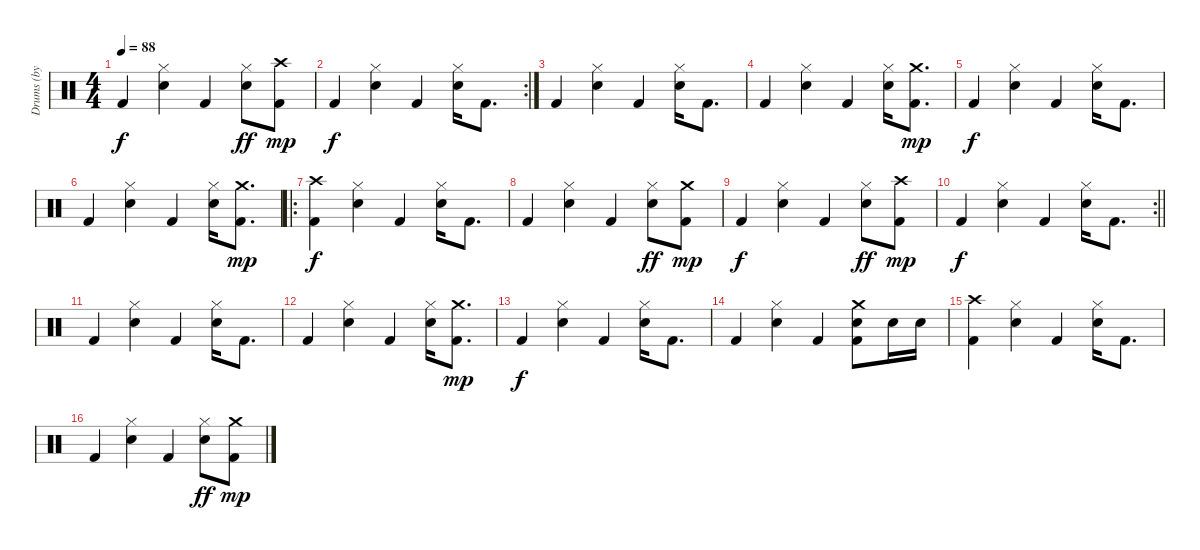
\track ("Drums (by Rim)" "Drums (by ") {instrument percussion}
\staff {score}
\articulation defaults
\ts (4 4)
\tempo 88
\clef neutral
\ks c "Kick (hit) 2".4{dy f}
("Hi-Hat (closed)" "Snare (hit) 2").4 "Kick (hit) 2".4 ("Hi-Hat (closed)" "Snare (hit) 2").8{dy ff} ("Kick (hit) 2" "Crash high (hit)").8{dy mp} |
\rc 2 "Kick (hit) 2".4{dy f}
("Hi-Hat (closed)" "Snare (hit) 2").4 "Kick (hit) 2".4 ("Hi-Hat (closed)" "Snare (hit) 2").16 "Kick (hit) 2".8{d} |
"Kick (hit) 2".4 ("Hi-Hat (closed)" "Snare (hit) 2").4 "Kick (hit) 2".4 ("Hi-Hat (closed)" "Snare (hit) 2").16 "Kick (hit) 2".8{d} |
"Kick (hit) 2".4 ("Hi-Hat (closed)" "Snare (hit) 2").4 "Kick (hit) 2".4 ("Hi-Hat (closed)" "Snare (hit) 2").16 ("Kick (hit) 2" "Crash medium (hit)").8{d dy mp} |
"Kick (hit) 2".4{dy f} ("Hi-Hat (closed)" "Snare (hit) 2").4 "Kick (hit) 2".4 ("Hi-Hat (closed)" "Snare (hit) 2").16 "Kick (hit) 2".8{d} |
"Kick (hit) 2".4 ("Hi-Hat (closed)" "Snare (hit) 2").4 "Kick (hit) 2".4 ("Hi-Hat (closed)" "Snare (hit) 2").16 ("Kick (hit) 2" "Crash medium (hit)").8{d dy mp} |
\ro
("Kick (hit) 2" "Crash high (hit)").4{dy f} ("Hi-Hat (closed)" "Snare (hit) 2").4 "Kick (hit) 2".4 ("Hi-Hat (closed)" "Snare (hit) 2").16 "Kick (hit) 2".8{d} |
"Kick (hit) 2".4 ("Hi-Hat (closed)" "Snare (hit) 2").4 "Kick (hit) 2".4 ("Hi-Hat (closed)" "Snare (hit) 2").8{dy ff} ("Kick (hit) 2" "Crash medium (hit)").8{dy mp} |
"Kick (hit) 2".4{dy f} ("Hi-Hat (closed)" "Snare (hit) 2").4 "Kick (hit) 2".4 ("Hi-Hat (closed)" "Snare (hit) 2").8{dy ff} ("Kick (hit) 2" "Crash high (hit)").8{dy mp} |
\rc 2
\barLineRight lightlight "Kick (hit) 2".4{dy f}
("Hi-Hat (closed)" "Snare (hit) 2").4 "Kick (hit) 2".4 ("Hi-Hat (closed)" "Snare (hit) 2").16 "Kick (hit) 2".8{d} |
"Kick (hit) 2".4 ("Hi-Hat (closed)" "Snare (hit) 2").4 "Kick (hit) 2".4 ("Hi-Hat (closed)" "Snare (hit) 2").16 "Kick (hit) 2".8{d} |
"Kick (hit) 2".4 ("Hi-Hat (closed)" "Snare (hit) 2").4 "Kick (hit) 2".4 ("Hi-Hat (closed)" "Snare (hit) 2").16 ("Kick (hit) 2" "Crash medium (hit)").8{d dy mp} |
"Kick (hit) 2".4{dy f} ("Hi-Hat (closed)" "Snare (hit) 2").4 "Kick (hit) 2".4 ("Hi-Hat (closed)" "Snare (hit) 2").16 "Kick (hit) 2".8{d} |
"Kick (hit) 2".4 ("Hi-Hat (closed)" "Snare (hit) 2").4 "Kick (hit) 2".4 ("Kick (hit) 2" "Snare (hit) 2" "Crash medium (hit)").8 "Snare (hit) 2".16 "Snare (hit) 2".16 |
("Kick (hit) 2" "Crash high (hit)").4 ("Hi-Hat (closed)" "Snare (hit) 2").4 "Kick (hit) 2".4 ("Hi-Hat (closed)" "Snare (hit) 2").16 "Kick (hit) 2".8{d} |
"Kick (hit) 2".4 ("Hi-Hat (closed)" "Snare (hit) 2").4 "Kick (hit) 2".4 ("Hi-Hat (closed)" "Snare (hit) 2").8{dy ff} ("Kick (hit) 2" "Crash medium (hit)").8{dy mp}
